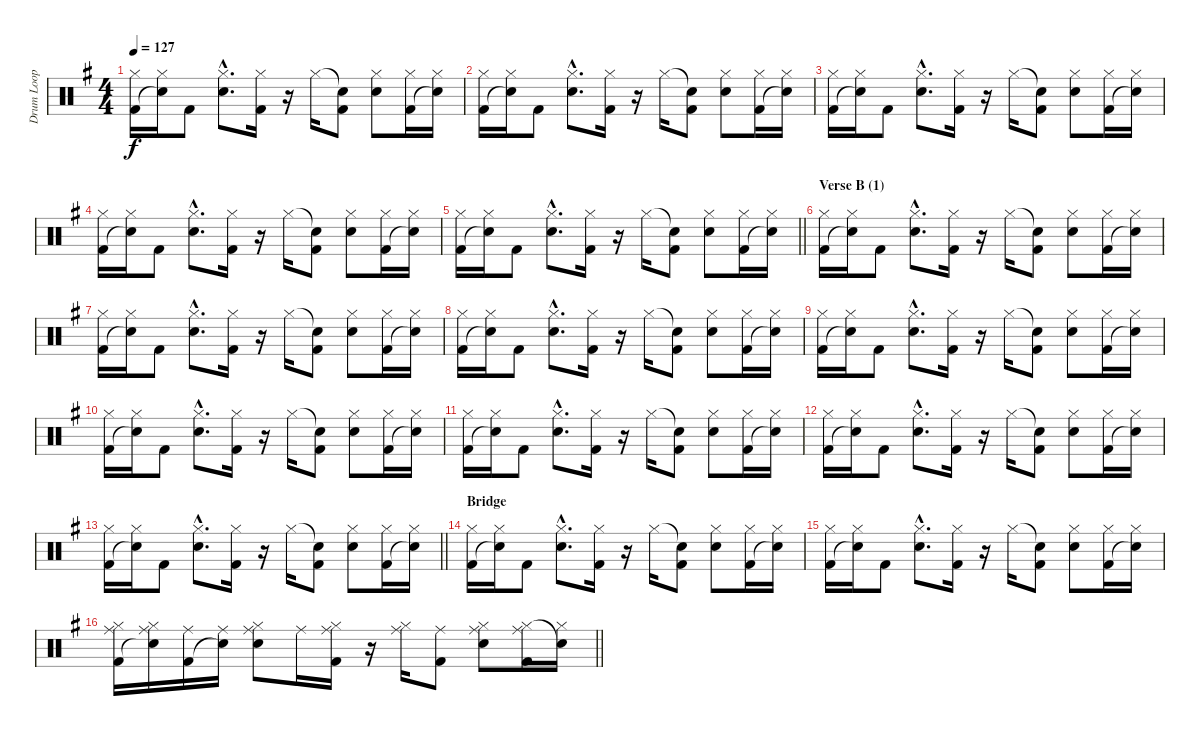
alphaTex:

\track ("Drum Loop" "Drum Loop") {instrument percussion}
\staff {score}
\articulation defaults
\ts (4 4)
\tempo 127
\clef neutral
\ks eminor
("Hi-Hat (closed)" "Kick (hit) 2").16{dy f} ("Hi-Hat (closed)" "Snare (hit)"{t}).16 "Kick (hit) 2".8 ("Hi-Hat (closed)"{hac} "Electric Snare (hit)"{hac}).8{d} ("Hi-Hat (closed)" "Kick (hit) 2").16 r.16 "Hi-Hat (closed)".16 ("Snare (hit)"{t} "Kick (hit) 2").8 ("Hi-Hat (closed)" "Electric Snare (hit)").8 ("Hi-Hat (closed)" "Kick (hit) 2").16 ("Hi-Hat (closed)" "Snare (hit)"{t}).16 |
("Hi-Hat (closed)" "Kick (hit) 2").16 ("Hi-Hat (closed)" "Snare (hit)"{t}).16 "Kick (hit) 2".8 ("Hi-Hat (closed)"{hac} "Electric Snare (hit)"{hac}).8{d} ("Hi-Hat (closed)" "Kick (hit) 2").16 r.16 "Hi-Hat (closed)".16 ("Snare (hit)"{t} "Kick (hit) 2").8 ("Hi-Hat (closed)" "Electric Snare (hit)").8 ("Hi-Hat (closed)" "Kick (hit) 2").16 ("Hi-Hat (closed)" "Snare (hit)"{t}).16 |
("Hi-Hat (closed)" "Kick (hit) 2").16 ("Hi-Hat (closed)" "Snare (hit)"{t}).16 "Kick (hit) 2".8 ("Hi-Hat (closed)"{hac} "Electric Snare (hit)"{hac}).8{d} ("Hi-Hat (closed)" "Kick (hit) 2").16 r.16 "Hi-Hat (closed)".16 ("Snare (hit)"{t} "Kick (hit) 2").8 ("Hi-Hat (closed)" "Electric Snare (hit)").8 ("Hi-Hat (closed)" "Kick (hit) 2").16 ("Hi-Hat (closed)" "Snare (hit)"{t}).16 |
("Hi-Hat (closed)" "Kick (hit) 2").16 ("Hi-Hat (closed)" "Snare (hit)"{t}).16 "Kick (hit) 2".8 ("Hi-Hat (closed)"{hac} "Electric Snare (hit)"{hac}).8{d} ("Hi-Hat (closed)" "Kick (hit) 2").16 r.16 "Hi-Hat (closed)".16 ("Snare (hit)"{t} "Kick (hit) 2").8 ("Hi-Hat (closed)" "Electric Snare (hit)").8 ("Hi-Hat (closed)" "Kick (hit) 2").16 ("Hi-Hat (closed)" "Snare (hit)"{t}).16 |
\barLineRight lightlight
("Hi-Hat (closed)" "Kick (hit) 2").16 ("Hi-Hat (closed)" "Snare (hit)"{t}).16 "Kick (hit) 2".8 ("Hi-Hat (closed)"{hac} "Electric Snare (hit)"{hac}).8{d} ("Hi-Hat (closed)" "Kick (hit) 2").16 r.16 "Hi-Hat (closed)".16 ("Snare (hit)"{t} "Kick (hit) 2").8 ("Hi-Hat (closed)" "Electric Snare (hit)").8 ("Hi-Hat (closed)" "Kick (hit) 2").16 ("Hi-Hat (closed)" "Snare (hit)"{t}).16 |
\section ("" "Verse B (1)")
("Hi-Hat (closed)" "Kick (hit) 2").16 ("Hi-Hat (closed)" "Snare (hit)"{t}).16 "Kick (hit) 2".8 ("Hi-Hat (closed)"{hac} "Electric Snare (hit)"{hac}).8{d} ("Hi-Hat (closed)" "Kick (hit) 2").16 r.16 "Hi-Hat (closed)".16 ("Snare (hit)"{t} "Kick (hit) 2").8 ("Hi-Hat (closed)" "Electric Snare (hit)").8 ("Hi-Hat (closed)" "Kick (hit) 2").16 ("Hi-Hat (closed)" "Snare (hit)"{t}).16 |
("Hi-Hat (closed)" "Kick (hit) 2").16 ("Hi-Hat (closed)" "Snare (hit)"{t}).16 "Kick (hit) 2".8 ("Hi-Hat (closed)"{hac} "Electric Snare (hit)"{hac}).8{d} ("Hi-Hat (closed)" "Kick (hit) 2").16 r.16 "Hi-Hat (closed)".16 ("Snare (hit)"{t} "Kick (hit) 2").8 ("Hi-Hat (closed)" "Electric Snare (hit)").8 ("Hi-Hat (closed)" "Kick (hit) 2").16 ("Hi-Hat (closed)" "Snare (hit)"{t}).16 |
("Hi-Hat (closed)" "Kick (hit) 2").16 ("Hi-Hat (closed)" "Snare (hit)"{t}).16 "Kick (hit) 2".8 ("Hi-Hat (closed)"{hac} "Electric Snare (hit)"{hac}).8{d} ("Hi-Hat (closed)" "Kick (hit) 2").16 r.16 "Hi-Hat (closed)".16 ("Snare (hit)"{t} "Kick (hit) 2").8 ("Hi-Hat (closed)" "Electric Snare (hit)").8 ("Hi-Hat (closed)" "Kick (hit) 2").16 ("Hi-Hat (closed)" "Snare (hit)"{t}).16 |
("Hi-Hat (closed)" "Kick (hit) 2").16 ("Hi-Hat (closed)" "Snare (hit)"{t}).16 "Kick (hit) 2".8 ("Hi-Hat (closed)"{hac} "Electric Snare (hit)"{hac}).8{d} ("Hi-Hat (closed)" "Kick (hit) 2").16 r.16 "Hi-Hat (closed)".16 ("Snare (hit)"{t} "Kick (hit) 2").8 ("Hi-Hat (closed)" "Electric Snare (hit)").8 ("Hi-Hat (closed)" "Kick (hit) 2").16 ("Hi-Hat (closed)" "Snare (hit)"{t}).16 |
("Hi-Hat (closed)" "Kick (hit) 2").16 ("Hi-Hat (closed)" "Snare (hit)"{t}).16 "Kick (hit) 2".8 ("Hi-Hat (closed)"{hac} "Electric Snare (hit)"{hac}).8{d} ("Hi-Hat (closed)" "Kick (hit) 2").16 r.16 "Hi-Hat (closed)".16 ("Snare (hit)"{t} "Kick (hit) 2").8 ("Hi-Hat (closed)" "Electric Snare (hit)").8 ("Hi-Hat (closed)" "Kick (hit) 2").16 ("Hi-Hat (closed)" "Snare (hit)"{t}).16 |
("Hi-Hat (closed)" "Kick (hit) 2").16 ("Hi-Hat (closed)" "Snare (hit)"{t}).16 "Kick (hit) 2".8 ("Hi-Hat (closed)"{hac} "Electric Snare (hit)"{hac}).8{d} ("Hi-Hat (closed)" "Kick (hit) 2").16 r.16 "Hi-Hat (closed)".16 ("Snare (hit)"{t} "Kick (hit) 2").8 ("Hi-Hat (closed)" "Electric Snare (hit)").8 ("Hi-Hat (closed)" "Kick (hit) 2").16 ("Hi-Hat (closed)" "Snare (hit)"{t}).16 |
("Hi-Hat (closed)" "Kick (hit) 2").16 ("Hi-Hat (closed)" "Snare (hit)"{t}).16 "Kick (hit) 2".8 ("Hi-Hat (closed)"{hac} "Electric Snare (hit)"{hac}).8{d} ("Hi-Hat (closed)" "Kick (hit) 2").16 r.16 "Hi-Hat (closed)".16 ("Snare (hit)"{t} "Kick (hit) 2").8 ("Hi-Hat (closed)" "Electric Snare (hit)").8 ("Hi-Hat (closed)" "Kick (hit) 2").16 ("Hi-Hat (closed)" "Snare (hit)"{t}).16 |
\barLineRight lightlight
("Hi-Hat (closed)" "Kick (hit) 2").16 ("Hi-Hat (closed)" "Snare (hit)"{t}).16 "Kick (hit) 2".8 ("Hi-Hat (closed)"{hac} "Electric Snare (hit)"{hac}).8{d} ("Hi-Hat (closed)" "Kick (hit) 2").16 r.16 "Hi-Hat (closed)".16 ("Snare (hit)"{t} "Kick (hit) 2").8 ("Hi-Hat (closed)" "Electric Snare (hit)").8 ("Hi-Hat (closed)" "Kick (hit) 2").16 ("Hi-Hat (closed)" "Snare (hit)"{t}).16 |
\section ("" "Bridge")
("Hi-Hat (closed)" "Kick (hit) 2").16 ("Hi-Hat (closed)" "Snare (hit)"{t}).16 "Kick (hit) 2".8 ("Hi-Hat (closed)"{hac} "Electric Snare (hit)"{hac}).8{d} ("Hi-Hat (closed)" "Kick (hit) 2").16 r.16 "Hi-Hat (closed)".16 ("Snare (hit)"{t} "Kick (hit) 2").8 ("Hi-Hat (closed)" "Electric Snare (hit)").8 ("Hi-Hat (closed)" "Kick (hit) 2").16 ("Hi-Hat (closed)" "Snare (hit)"{t}).16 |
("Hi-Hat (closed)" "Kick (hit) 2").16 ("Hi-Hat (closed)" "Snare (hit)"{t}).16 "Kick (hit) 2".8 ("Hi-Hat (closed)"{hac} "Electric Snare (hit)"{hac}).8{d} ("Hi-Hat (closed)" "Kick (hit) 2").16 r.16 "Hi-Hat (closed)".16 ("Snare (hit)"{t} "Kick (hit) 2").8 ("Hi-Hat (closed)" "Electric Snare (hit)").8 ("Hi-Hat (closed)" "Kick (hit) 2").16 ("Hi-Hat (closed)" "Snare (hit)"{t}).16 |
\barLineRight lightlight
("Ride (middle)" "Hi-Hat (closed)" "Kick (hit) 2").16 ("Ride (middle)" "Hi-Hat (closed)" "Snare (hit)"{t}).16 ("Ride (middle)" "Kick (hit) 2").16 ("Ride (middle)" "Snare (hit)"{t}).16 ("Ride (middle)" "Hi-Hat (closed)" "Electric Snare (hit)").8 "Ride (middle)".16 ("Ride (middle)" "Hi-Hat (closed)" "Kick (hit) 2").16 r.16 ("Ride (middle)" "Hi-Hat (closed)").16 ("Ride (middle)" "Kick (hit) 2").8 ("Ride (middle)" "Hi-Hat (closed)" "Electric Snare (hit)").8 ("Ride (middle)" "Hi-Hat (closed)" "Kick (hit) 2").16 ("Hi-Hat (closed)" "Snare (hit)"{t}).16
